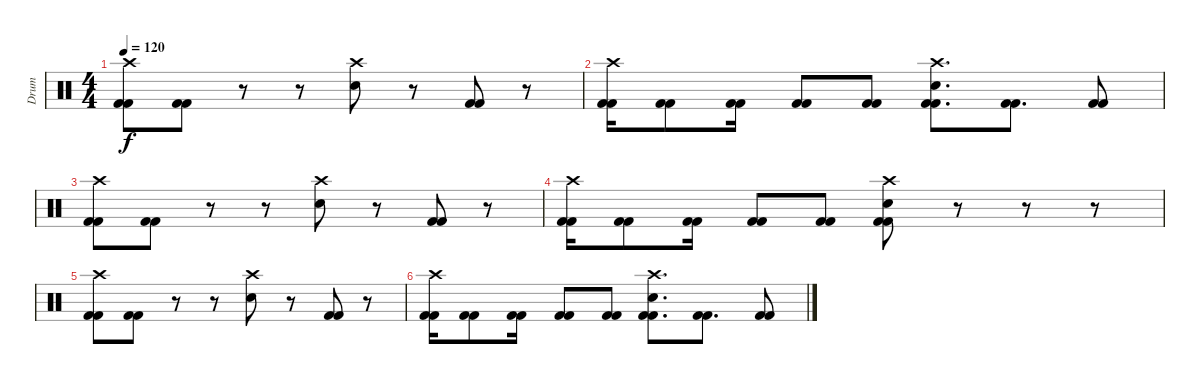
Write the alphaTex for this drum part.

\track ("Drum" "Drum") {instrument percussion}
\staff {score}
\articulation defaults
\ts (4 4)
\tempo 120
\clef neutral
\ks c
("Crash high (hit)" "Kick (hit) 2" "Kick (hit) 2").8{dy f} ("Kick (hit) 2" "Kick (hit) 2").8 r.8 r.8 ("Crash high (hit)" "Electric Snare (hit)").8 r.8 ("Kick (hit) 2" "Kick (hit) 2").8 r.8 |
("Crash high (hit)" "Kick (hit) 2" "Kick (hit) 2").16 ("Kick (hit) 2" "Kick (hit) 2").8 ("Kick (hit) 2" "Kick (hit) 2").16 ("Kick (hit) 2" "Kick (hit) 2").8 ("Kick (hit) 2" "Kick (hit) 2").8 ("Crash high (hit)" "Electric Snare (hit)" "Kick (hit) 2" "Kick (hit) 2").8{d} ("Kick (hit) 2" "Kick (hit) 2").8{d} ("Kick (hit) 2" "Kick (hit) 2").8 |
("Crash high (hit)" "Kick (hit) 2" "Kick (hit) 2").8 ("Kick (hit) 2" "Kick (hit) 2").8 r.8 r.8 ("Crash high (hit)" "Electric Snare (hit)").8 r.8 ("Kick (hit) 2" "Kick (hit) 2").8 r.8 |
("Crash high (hit)" "Kick (hit) 2" "Kick (hit) 2").16 ("Kick (hit) 2" "Kick (hit) 2").8 ("Kick (hit) 2" "Kick (hit) 2").16 ("Kick (hit) 2" "Kick (hit) 2").8 ("Kick (hit) 2" "Kick (hit) 2").8 ("Crash high (hit)" "Electric Snare (hit)" "Kick (hit) 2" "Kick (hit) 2").8 r.8 r.8 r.8 |
("Crash high (hit)" "Kick (hit) 2" "Kick (hit) 2").8 ("Kick (hit) 2" "Kick (hit) 2").8 r.8 r.8 ("Crash high (hit)" "Electric Snare (hit)").8 r.8 ("Kick (hit) 2" "Kick (hit) 2").8 r.8 |
("Crash high (hit)" "Kick (hit) 2" "Kick (hit) 2").16 ("Kick (hit) 2" "Kick (hit) 2").8 ("Kick (hit) 2" "Kick (hit) 2").16 ("Kick (hit) 2" "Kick (hit) 2").8 ("Kick (hit) 2" "Kick (hit) 2").8 ("Crash high (hit)" "Electric Snare (hit)" "Kick (hit) 2" "Kick (hit) 2").8{d} ("Kick (hit) 2" "Kick (hit) 2").8{d} ("Kick (hit) 2" "Kick (hit) 2").8
